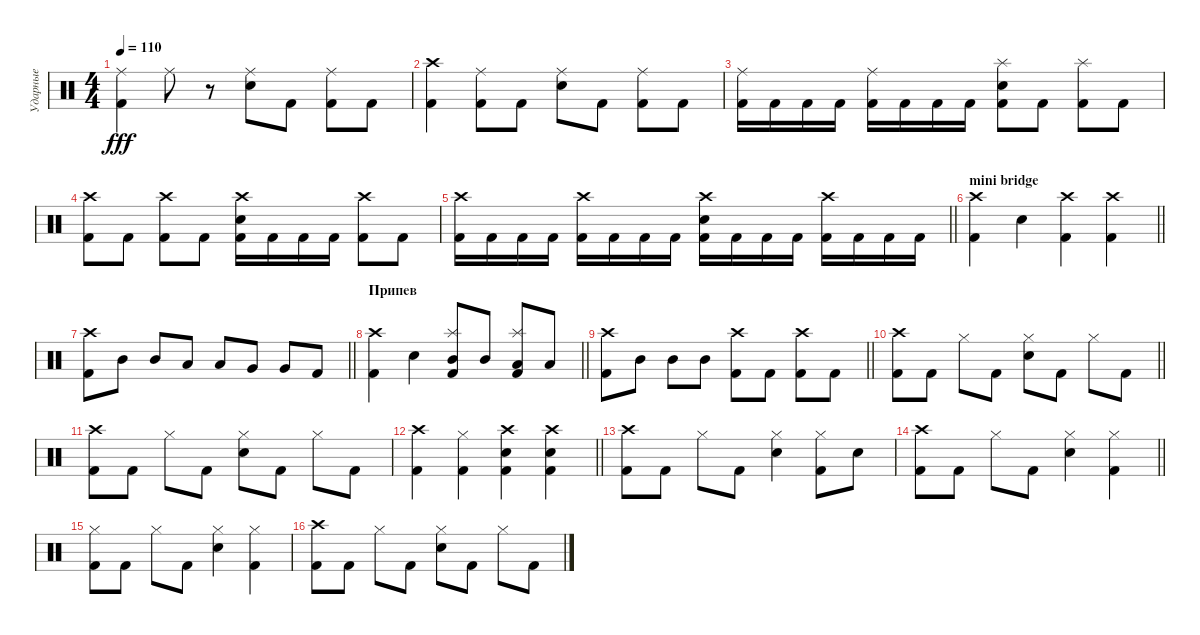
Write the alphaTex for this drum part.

\track ("Ударные" "Ударные") {mute instrument percussion}
\staff {score}
\articulation defaults
\ts (4 4)
\tempo 110
\clef neutral
\ks c
("Ride (middle)" "Kick (hit) 2").4{dy fff} "Ride (middle)".8 r.8 ("Ride (middle)" "Snare (hit) 2").8 "Kick (hit) 2".8 ("Ride (middle)" "Kick (hit) 2").8 "Kick (hit) 2".8 |
("Crash high (hit)" "Kick (hit) 2").4 ("Ride (middle)" "Kick (hit) 2").8 "Kick (hit) 2".8 ("Ride (middle)" "Snare (hit) 2").8 "Kick (hit) 2".8 ("Ride (middle)" "Kick (hit) 2").8 "Kick (hit) 2".8 |
("Ride (middle)" "Kick (hit) 2").16 "Kick (hit) 2".16 "Kick (hit) 2".16 "Kick (hit) 2".16 ("Ride (middle)" "Kick (hit) 2").16 "Kick (hit) 2".16 "Kick (hit) 2".16 "Kick (hit) 2".16 ("Splash (hit)" "Snare (hit) 2" "Kick (hit) 2").8 "Kick (hit) 2".8 ("Splash (hit)" "Kick (hit) 2").8 "Kick (hit) 2".8 |
("Crash high (hit)" "Kick (hit) 2").8 "Kick (hit) 2".8 ("Crash high (hit)" "Kick (hit) 2").8 "Kick (hit) 2".8 ("Crash high (hit)" "Snare (hit) 2" "Kick (hit) 2").16 "Kick (hit) 2".16 "Kick (hit) 2".16 "Kick (hit) 2".16 ("Crash high (hit)" "Kick (hit) 2").8 "Kick (hit) 2".8 |
\barLineRight lightlight
("Crash high (hit)" "Kick (hit) 2").16 "Kick (hit) 2".16 "Kick (hit) 2".16 "Kick (hit) 2".16 ("Crash high (hit)" "Kick (hit) 2").16 "Kick (hit) 2".16 "Kick (hit) 2".16 "Kick (hit) 2".16 ("Crash high (hit)" "Snare (hit) 2" "Kick (hit) 2").16 "Kick (hit) 2".16 "Kick (hit) 2".16 "Kick (hit) 2".16 ("Crash high (hit)" "Kick (hit) 2").16 "Kick (hit) 2".16 "Kick (hit) 2".16 "Kick (hit) 2".16 |
\section ("" "mini bridge")
\barLineRight lightlight
("Crash high (hit)" "Kick (hit) 2").4 "Snare (hit) 2".4 ("Crash high (hit)" "Kick (hit) 2").4 ("Crash high (hit)" "Kick (hit) 2").4 |
\section ("" "")
\barLineRight lightlight
("Crash high (hit)" "Kick (hit) 2").8 "Mid Tom (hit)".8 "Mid Tom (hit)".8 "Low Tom (hit)".8 "Low Tom (hit)".8 "Very Low Tom (hit)".8 "Very Low Tom (hit)".8 "Kick (hit) 2".8 |
\section ("" "Припев")
\barLineRight lightlight
("Crash high (hit)" "Kick (hit) 2").4 "Snare (hit) 2".4 ("Splash (hit)" "Mid Tom (hit)" "Kick (hit) 2").8 "Mid Tom (hit)".8 ("Splash (hit)" "Low Tom (hit)" "Kick (hit) 2").8 "Low Tom (hit)".8 |
\section ("" "")
\barLineRight lightlight
("Crash high (hit)" "Kick (hit) 2").8 "Mid Tom (hit)".8 "Mid Tom (hit)".8 "Mid Tom (hit)".8 ("Crash high (hit)" "Kick (hit) 2").8 "Kick (hit) 2".8 ("Crash high (hit)" "Kick (hit) 2").8 "Kick (hit) 2".8 |
\section ("" "")
\barLineRight lightlight
("Crash high (hit)" "Kick (hit) 2").8 "Kick (hit) 2".8 "Hi-Hat (closed)".8 "Kick (hit) 2".8 ("Hi-Hat (closed)" "Snare (hit) 2").8 "Kick (hit) 2".8 "Hi-Hat (closed)".8 "Kick (hit) 2".8 |
\section ("" "")
("Crash high (hit)" "Kick (hit) 2").8 "Kick (hit) 2".8 "Hi-Hat (closed)".8 "Kick (hit) 2".8 ("Hi-Hat (closed)" "Snare (hit) 2").8 "Kick (hit) 2".8 "Hi-Hat (closed)".8 "Kick (hit) 2".8 |
\barLineRight lightlight
("Crash high (hit)" "Kick (hit) 2").4 ("Hi-Hat (closed)" "Kick (hit) 2").4 ("Crash high (hit)" "Snare (hit) 2" "Kick (hit) 2").4 ("Crash high (hit)" "Snare (hit) 2" "Kick (hit) 2").4 |
("Crash high (hit)" "Kick (hit) 2").8 "Kick (hit) 2".8 "Hi-Hat (closed)".8 "Kick (hit) 2".8 ("Hi-Hat (closed)" "Snare (hit) 2").4 ("Hi-Hat (closed)" "Kick (hit) 2").8 "Snare (hit) 2".8 |
\barLineRight lightlight
("Crash high (hit)" "Kick (hit) 2").8 "Kick (hit) 2".8 "Hi-Hat (closed)".8 "Kick (hit) 2".8 ("Hi-Hat (closed)" "Snare (hit) 2").4 ("Hi-Hat (closed)" "Kick (hit) 2").4 |
("Hi-Hat (closed)" "Kick (hit) 2").8 "Kick (hit) 2".8 "Hi-Hat (closed)".8 "Kick (hit) 2".8 ("Hi-Hat (closed)" "Snare (hit) 2").4 ("Hi-Hat (closed)" "Kick (hit) 2").4 |
("Crash high (hit)" "Kick (hit) 2").8 "Kick (hit) 2".8 "Hi-Hat (closed)".8 "Kick (hit) 2".8 ("Hi-Hat (closed)" "Snare (hit) 2").8 "Kick (hit) 2".8 "Hi-Hat (closed)".8 "Kick (hit) 2".8
